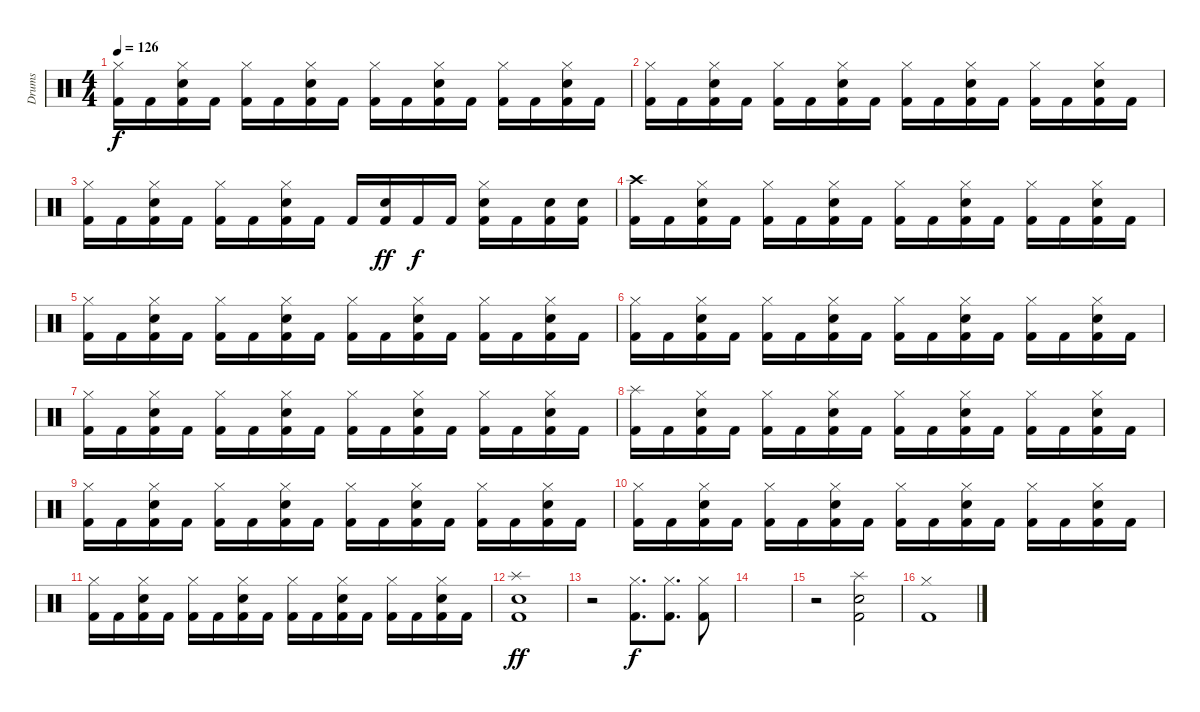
\track ("Drums" "Drums") {instrument percussion}
\staff {score}
\articulation defaults
\ts (4 4)
\tempo 126
\clef neutral
\ks c
("Hi-Hat (closed)" "Kick (hit) 2").16{dy f} "Kick (hit) 2".16 ("Hi-Hat (closed)" "Snare (hit) 2" "Kick (hit) 2").16 "Kick (hit) 2".16 ("Hi-Hat (closed)" "Kick (hit) 2").16 "Kick (hit) 2".16 ("Hi-Hat (closed)" "Snare (hit) 2" "Kick (hit) 2").16 "Kick (hit) 2".16 ("Hi-Hat (closed)" "Kick (hit) 2").16 "Kick (hit) 2".16 ("Hi-Hat (closed)" "Snare (hit) 2" "Kick (hit) 2").16 "Kick (hit) 2".16 ("Hi-Hat (closed)" "Kick (hit) 2").16 "Kick (hit) 2".16 ("Hi-Hat (closed)" "Snare (hit) 2" "Kick (hit) 2").16 "Kick (hit) 2".16 |
("Hi-Hat (closed)" "Kick (hit) 2").16 "Kick (hit) 2".16 ("Hi-Hat (closed)" "Snare (hit) 2" "Kick (hit) 2").16 "Kick (hit) 2".16 ("Hi-Hat (closed)" "Kick (hit) 2").16 "Kick (hit) 2".16 ("Hi-Hat (closed)" "Snare (hit) 2" "Kick (hit) 2").16 "Kick (hit) 2".16 ("Hi-Hat (closed)" "Kick (hit) 2").16 "Kick (hit) 2".16 ("Hi-Hat (closed)" "Snare (hit) 2" "Kick (hit) 2").16 "Kick (hit) 2".16 ("Hi-Hat (closed)" "Kick (hit) 2").16 "Kick (hit) 2".16 ("Hi-Hat (closed)" "Snare (hit) 2" "Kick (hit) 2").16 "Kick (hit) 2".16 |
("Hi-Hat (closed)" "Kick (hit) 2").16 "Kick (hit) 2".16 ("Hi-Hat (closed)" "Snare (hit) 2" "Kick (hit) 2").16 "Kick (hit) 2".16 ("Hi-Hat (closed)" "Kick (hit) 2").16 "Kick (hit) 2".16 ("Hi-Hat (closed)" "Snare (hit) 2" "Kick (hit) 2").16 "Kick (hit) 2".16 "Kick (hit) 2".16 ("Snare (hit) 2" "Kick (hit) 2").16{dy ff} "Kick (hit) 2".16{dy f} "Kick (hit) 2".16 ("Hi-Hat (closed)" "Snare (hit) 2" "Kick (hit) 2").16 "Kick (hit) 2".16 ("Snare (hit) 2" "Kick (hit) 2").16 ("Snare (hit) 2" "Kick (hit) 2").16 |
("Crash high (hit)" "Kick (hit) 2").16 "Kick (hit) 2".16 ("Hi-Hat (closed)" "Snare (hit) 2" "Kick (hit) 2").16 "Kick (hit) 2".16 ("Hi-Hat (closed)" "Kick (hit) 2").16 "Kick (hit) 2".16 ("Hi-Hat (closed)" "Snare (hit) 2" "Kick (hit) 2").16 "Kick (hit) 2".16 ("Hi-Hat (closed)" "Kick (hit) 2").16 "Kick (hit) 2".16 ("Hi-Hat (closed)" "Snare (hit) 2" "Kick (hit) 2").16 "Kick (hit) 2".16 ("Hi-Hat (closed)" "Kick (hit) 2").16 "Kick (hit) 2".16 ("Hi-Hat (closed)" "Snare (hit) 2" "Kick (hit) 2").16 "Kick (hit) 2".16 |
("Hi-Hat (closed)" "Kick (hit) 2").16 "Kick (hit) 2".16 ("Hi-Hat (closed)" "Snare (hit) 2" "Kick (hit) 2").16 "Kick (hit) 2".16 ("Hi-Hat (closed)" "Kick (hit) 2").16 "Kick (hit) 2".16 ("Hi-Hat (closed)" "Snare (hit) 2" "Kick (hit) 2").16 "Kick (hit) 2".16 ("Hi-Hat (closed)" "Kick (hit) 2").16 "Kick (hit) 2".16 ("Hi-Hat (closed)" "Snare (hit) 2" "Kick (hit) 2").16 "Kick (hit) 2".16 ("Hi-Hat (closed)" "Kick (hit) 2").16 "Kick (hit) 2".16 ("Hi-Hat (closed)" "Snare (hit) 2" "Kick (hit) 2").16 "Kick (hit) 2".16 |
("Hi-Hat (closed)" "Kick (hit) 2").16 "Kick (hit) 2".16 ("Hi-Hat (closed)" "Snare (hit) 2" "Kick (hit) 2").16 "Kick (hit) 2".16 ("Hi-Hat (closed)" "Kick (hit) 2").16 "Kick (hit) 2".16 ("Hi-Hat (closed)" "Snare (hit) 2" "Kick (hit) 2").16 "Kick (hit) 2".16 ("Hi-Hat (closed)" "Kick (hit) 2").16 "Kick (hit) 2".16 ("Hi-Hat (closed)" "Snare (hit) 2" "Kick (hit) 2").16 "Kick (hit) 2".16 ("Hi-Hat (closed)" "Kick (hit) 2").16 "Kick (hit) 2".16 ("Hi-Hat (closed)" "Snare (hit) 2" "Kick (hit) 2").16 "Kick (hit) 2".16 |
("Hi-Hat (closed)" "Kick (hit) 2").16 "Kick (hit) 2".16 ("Hi-Hat (closed)" "Snare (hit) 2" "Kick (hit) 2").16 "Kick (hit) 2".16 ("Hi-Hat (closed)" "Kick (hit) 2").16 "Kick (hit) 2".16 ("Hi-Hat (closed)" "Snare (hit) 2" "Kick (hit) 2").16 "Kick (hit) 2".16 ("Hi-Hat (closed)" "Kick (hit) 2").16 "Kick (hit) 2".16 ("Hi-Hat (closed)" "Snare (hit) 2" "Kick (hit) 2").16 "Kick (hit) 2".16 ("Hi-Hat (closed)" "Kick (hit) 2").16 "Kick (hit) 2".16 ("Hi-Hat (closed)" "Snare (hit) 2" "Kick (hit) 2").16 "Kick (hit) 2".16 |
("Splash (hit)" "Kick (hit) 2").16 "Kick (hit) 2".16 ("Hi-Hat (closed)" "Snare (hit) 2" "Kick (hit) 2").16 "Kick (hit) 2".16 ("Hi-Hat (closed)" "Kick (hit) 2").16 "Kick (hit) 2".16 ("Hi-Hat (closed)" "Snare (hit) 2" "Kick (hit) 2").16 "Kick (hit) 2".16 ("Hi-Hat (closed)" "Kick (hit) 2").16 "Kick (hit) 2".16 ("Hi-Hat (closed)" "Snare (hit) 2" "Kick (hit) 2").16 "Kick (hit) 2".16 ("Hi-Hat (closed)" "Kick (hit) 2").16 "Kick (hit) 2".16 ("Hi-Hat (closed)" "Snare (hit) 2" "Kick (hit) 2").16 "Kick (hit) 2".16 |
("Hi-Hat (closed)" "Kick (hit) 2").16 "Kick (hit) 2".16 ("Hi-Hat (closed)" "Snare (hit) 2" "Kick (hit) 2").16 "Kick (hit) 2".16 ("Hi-Hat (closed)" "Kick (hit) 2").16 "Kick (hit) 2".16 ("Hi-Hat (closed)" "Snare (hit) 2" "Kick (hit) 2").16 "Kick (hit) 2".16 ("Hi-Hat (closed)" "Kick (hit) 2").16 "Kick (hit) 2".16 ("Hi-Hat (closed)" "Snare (hit) 2" "Kick (hit) 2").16 "Kick (hit) 2".16 ("Hi-Hat (closed)" "Kick (hit) 2").16 "Kick (hit) 2".16 ("Hi-Hat (closed)" "Snare (hit) 2" "Kick (hit) 2").16 "Kick (hit) 2".16 |
("Hi-Hat (closed)" "Kick (hit) 2").16 "Kick (hit) 2".16 ("Hi-Hat (closed)" "Snare (hit) 2" "Kick (hit) 2").16 "Kick (hit) 2".16 ("Hi-Hat (closed)" "Kick (hit) 2").16 "Kick (hit) 2".16 ("Hi-Hat (closed)" "Snare (hit) 2" "Kick (hit) 2").16 "Kick (hit) 2".16 ("Hi-Hat (closed)" "Kick (hit) 2").16 "Kick (hit) 2".16 ("Hi-Hat (closed)" "Snare (hit) 2" "Kick (hit) 2").16 "Kick (hit) 2".16 ("Hi-Hat (closed)" "Kick (hit) 2").16 "Kick (hit) 2".16 ("Hi-Hat (closed)" "Snare (hit) 2" "Kick (hit) 2").16 "Kick (hit) 2".16 |
("Hi-Hat (closed)" "Kick (hit) 2").16 "Kick (hit) 2".16 ("Hi-Hat (closed)" "Snare (hit) 2" "Kick (hit) 2").16 "Kick (hit) 2".16 ("Hi-Hat (closed)" "Kick (hit) 2").16 "Kick (hit) 2".16 ("Hi-Hat (closed)" "Snare (hit) 2" "Kick (hit) 2").16 "Kick (hit) 2".16 ("Hi-Hat (closed)" "Kick (hit) 2").16 "Kick (hit) 2".16 ("Hi-Hat (closed)" "Snare (hit) 2" "Kick (hit) 2").16 "Kick (hit) 2".16 ("Hi-Hat (closed)" "Kick (hit) 2").16 "Kick (hit) 2".16 ("Hi-Hat (closed)" "Snare (hit) 2" "Kick (hit) 2").16 "Kick (hit) 2".16 |
("Splash (hit)" "Snare (hit) 2" "Kick (hit) 2").1{dy ff} |
r.2 ("Hi-Hat (closed)" "Kick (hit) 2").8{d dy f} ("Hi-Hat (closed)" "Kick (hit) 2").8{d} ("Hi-Hat (closed)" "Kick (hit) 2").8 |
|
r.2 ("Splash (hit)" "Snare (hit) 2" "Kick (hit) 2").2 |
("Hi-Hat (closed)" "Kick (hit) 2").1
